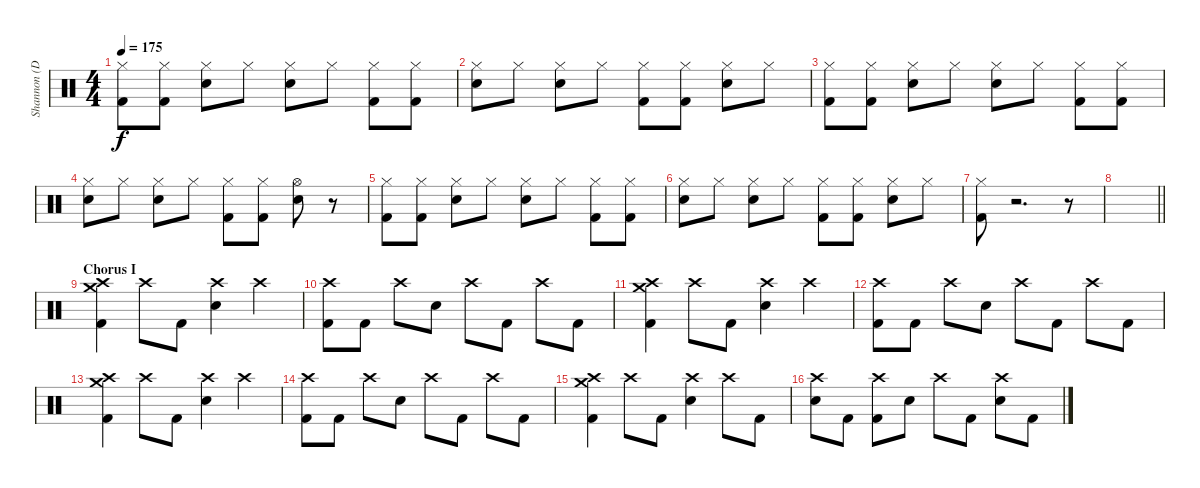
\track ("Shannon (Drum)" "Shannon (D") {instrument percussion}
\staff {score}
\articulation defaults
\ts (4 4)
\tempo 175
\clef neutral
\ks c
("Hi-Hat (closed)" "Kick (hit) 2").8{dy f} ("Hi-Hat (closed)" "Kick (hit) 2").8 ("Hi-Hat (closed)" "Electric Snare (hit)").8 "Hi-Hat (closed)".8 ("Hi-Hat (closed)" "Electric Snare (hit)").8 "Hi-Hat (closed)".8 ("Hi-Hat (closed)" "Kick (hit) 2").8 ("Hi-Hat (closed)" "Kick (hit) 2").8 |
("Hi-Hat (closed)" "Electric Snare (hit)").8 "Hi-Hat (closed)".8 ("Hi-Hat (closed)" "Electric Snare (hit)").8 "Hi-Hat (closed)".8 ("Hi-Hat (closed)" "Kick (hit) 2").8 ("Hi-Hat (closed)" "Kick (hit) 2").8 ("Hi-Hat (closed)" "Electric Snare (hit)").8 "Hi-Hat (closed)".8 |
("Hi-Hat (closed)" "Kick (hit) 2").8 ("Hi-Hat (closed)" "Kick (hit) 2").8 ("Hi-Hat (closed)" "Electric Snare (hit)").8 "Hi-Hat (closed)".8 ("Hi-Hat (closed)" "Electric Snare (hit)").8 "Hi-Hat (closed)".8 ("Hi-Hat (closed)" "Kick (hit) 2").8 ("Hi-Hat (closed)" "Kick (hit) 2").8 |
("Hi-Hat (closed)" "Electric Snare (hit)").8 "Hi-Hat (closed)".8 ("Hi-Hat (closed)" "Electric Snare (hit)").8 "Hi-Hat (closed)".8 ("Hi-Hat (closed)" "Kick (hit) 2").8 ("Hi-Hat (closed)" "Kick (hit) 2").8 ("Hi-Hat (open)" "Electric Snare (hit)").8 r.8 |
("Hi-Hat (closed)" "Kick (hit) 2").8 ("Hi-Hat (closed)" "Kick (hit) 2").8 ("Hi-Hat (closed)" "Electric Snare (hit)").8 "Hi-Hat (closed)".8 ("Hi-Hat (closed)" "Electric Snare (hit)").8 "Hi-Hat (closed)".8 ("Hi-Hat (closed)" "Kick (hit) 2").8 ("Hi-Hat (closed)" "Kick (hit) 2").8 |
("Hi-Hat (closed)" "Electric Snare (hit)").8 "Hi-Hat (closed)".8 ("Hi-Hat (closed)" "Electric Snare (hit)").8 "Hi-Hat (closed)".8 ("Hi-Hat (closed)" "Kick (hit) 2").8 ("Hi-Hat (closed)" "Kick (hit) 2").8 ("Hi-Hat (closed)" "Electric Snare (hit)").8 "Hi-Hat (closed)".8 |
("Hi-Hat (closed)" "Kick (hit) 2").8 r.2{d} r.8 |
\barLineRight lightlight
|
\section ("" "Chorus I")
("Crash high (hit)" "Crash medium (hit)" "Kick (hit) 2").4 "Crash high (hit)".8 "Kick (hit) 2".8 ("Crash high (hit)" "Electric Snare (hit)").4 "Crash high (hit)".4 |
("Crash high (hit)" "Kick (hit) 2").8 "Kick (hit) 2".8 "Crash high (hit)".8 "Electric Snare (hit)".8 "Crash high (hit)".8 "Kick (hit) 2".8 "Crash high (hit)".8 "Kick (hit) 2".8 |
("Crash high (hit)" "Crash medium (hit)" "Kick (hit) 2").4 "Crash high (hit)".8 "Kick (hit) 2".8 ("Crash high (hit)" "Electric Snare (hit)").4 "Crash high (hit)".4 |
("Crash high (hit)" "Kick (hit) 2").8 "Kick (hit) 2".8 "Crash high (hit)".8 "Electric Snare (hit)".8 "Crash high (hit)".8 "Kick (hit) 2".8 "Crash high (hit)".8 "Kick (hit) 2".8 |
("Crash high (hit)" "Crash medium (hit)" "Kick (hit) 2").4 "Crash high (hit)".8 "Kick (hit) 2".8 ("Crash high (hit)" "Electric Snare (hit)").4 "Crash high (hit)".4 |
("Crash high (hit)" "Kick (hit) 2").8 "Kick (hit) 2".8 "Crash high (hit)".8 "Electric Snare (hit)".8 "Crash high (hit)".8 "Kick (hit) 2".8 "Crash high (hit)".8 "Kick (hit) 2".8 |
("Crash high (hit)" "Crash medium (hit)" "Kick (hit) 2").4 "Crash high (hit)".8 "Kick (hit) 2".8 ("Crash high (hit)" "Electric Snare (hit)").4 "Crash high (hit)".8 "Kick (hit) 2".8 |
("Crash high (hit)" "Electric Snare (hit)").8 "Kick (hit) 2".8 ("Crash high (hit)" "Kick (hit) 2").8 "Electric Snare (hit)".8 "Crash high (hit)".8 "Kick (hit) 2".8 ("Crash high (hit)" "Electric Snare (hit)").8 "Kick (hit) 2".8
